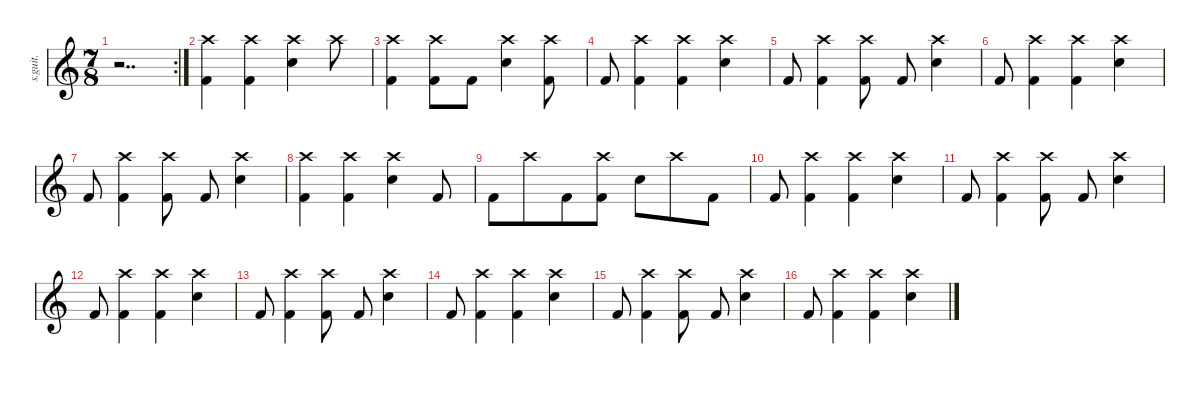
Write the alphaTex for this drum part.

\defaultSystemsLayout 4
\hideDynamics
\bracketExtendMode nobrackets
\track ("" "s.guit.") {instrument percussion}
\staff {score}
\articulation defaults
\rc 2
\ts (7 8)
\tempo (212 hide)
\clef g2
\ks c
r.2{dd dy f} |
("Kick (hit) 2" "Crash high (hit)").4{lyrics (0 "") lyrics (1 "") lyrics (2 "") lyrics (3 "") lyrics (4 "")} ("Kick (hit) 2" "Crash high (hit)").4{lyrics (0 "") lyrics (1 "") lyrics (2 "") lyrics (3 "") lyrics (4 "")} ("Snare (hit) 2" "Crash high (hit)").4{lyrics (0 "") lyrics (1 "") lyrics (2 "") lyrics (3 "") lyrics (4 "")} "Crash high (hit)".8{lyrics (0 "") lyrics (1 "") lyrics (2 "") lyrics (3 "") lyrics (4 "")} |
("Kick (hit) 2" "Crash high (hit)").4{lyrics (0 "") lyrics (1 "") lyrics (2 "") lyrics (3 "") lyrics (4 "")} ("Kick (hit) 2" "Crash high (hit)").8{lyrics (0 "") lyrics (1 "") lyrics (2 "") lyrics (3 "") lyrics (4 "")} "Kick (hit) 2".8{lyrics (0 "") lyrics (1 "") lyrics (2 "") lyrics (3 "") lyrics (4 "")} ("Snare (hit) 2" "Crash high (hit)").4{lyrics (0 "") lyrics (1 "") lyrics (2 "") lyrics (3 "") lyrics (4 "")} ("Kick (hit) 2" "Crash high (hit)").8{lyrics (0 "") lyrics (1 "") lyrics (2 "") lyrics (3 "") lyrics (4 "")} |
"Kick (hit) 2".8{lyrics (0 "") lyrics (1 "") lyrics (2 "") lyrics (3 "") lyrics (4 "")} ("Kick (hit) 2" "Crash high (hit)").4{lyrics (0 "") lyrics (1 "") lyrics (2 "") lyrics (3 "") lyrics (4 "")} ("Kick (hit) 2" "Crash high (hit)").4{lyrics (0 "") lyrics (1 "") lyrics (2 "") lyrics (3 "") lyrics (4 "")} ("Snare (hit) 2" "Crash high (hit)").4{lyrics (0 "") lyrics (1 "") lyrics (2 "") lyrics (3 "") lyrics (4 "")} |
"Kick (hit) 2".8{lyrics (0 "") lyrics (1 "") lyrics (2 "") lyrics (3 "") lyrics (4 "")} ("Kick (hit) 2" "Crash high (hit)").4{lyrics (0 "") lyrics (1 "") lyrics (2 "") lyrics (3 "") lyrics (4 "")} ("Kick (hit) 2" "Crash high (hit)").8{lyrics (0 "") lyrics (1 "") lyrics (2 "") lyrics (3 "") lyrics (4 "")} "Kick (hit) 2".8{lyrics (0 "") lyrics (1 "") lyrics (2 "") lyrics (3 "") lyrics (4 "")} ("Snare (hit) 2" "Crash high (hit)").4{lyrics (0 "") lyrics (1 "") lyrics (2 "") lyrics (3 "") lyrics (4 "")} |
"Kick (hit) 2".8{lyrics (0 "") lyrics (1 "") lyrics (2 "") lyrics (3 "") lyrics (4 "")} ("Kick (hit) 2" "Crash high (hit)").4{lyrics (0 "") lyrics (1 "") lyrics (2 "") lyrics (3 "") lyrics (4 "")} ("Kick (hit) 2" "Crash high (hit)").4{lyrics (0 "") lyrics (1 "") lyrics (2 "") lyrics (3 "") lyrics (4 "")} ("Snare (hit) 2" "Crash high (hit)").4{lyrics (0 "") lyrics (1 "") lyrics (2 "") lyrics (3 "") lyrics (4 "")} |
"Kick (hit) 2".8{lyrics (0 "") lyrics (1 "") lyrics (2 "") lyrics (3 "") lyrics (4 "")} ("Kick (hit) 2" "Crash high (hit)").4{lyrics (0 "") lyrics (1 "") lyrics (2 "") lyrics (3 "") lyrics (4 "")} ("Kick (hit) 2" "Crash high (hit)").8{lyrics (0 "") lyrics (1 "") lyrics (2 "") lyrics (3 "") lyrics (4 "")} "Kick (hit) 2".8{lyrics (0 "") lyrics (1 "") lyrics (2 "") lyrics (3 "") lyrics (4 "")} ("Snare (hit) 2" "Crash high (hit)").4{lyrics (0 "") lyrics (1 "") lyrics (2 "") lyrics (3 "") lyrics (4 "")} |
("Kick (hit) 2" "Crash high (hit)").4{lyrics (0 "") lyrics (1 "") lyrics (2 "") lyrics (3 "") lyrics (4 "")} ("Kick (hit) 2" "Crash high (hit)").4{lyrics (0 "") lyrics (1 "") lyrics (2 "") lyrics (3 "") lyrics (4 "")} ("Snare (hit) 2" "Crash high (hit)").4{lyrics (0 "") lyrics (1 "") lyrics (2 "") lyrics (3 "") lyrics (4 "")} "Kick (hit) 2".8{lyrics (0 "") lyrics (1 "") lyrics (2 "") lyrics (3 "") lyrics (4 "")} |
"Kick (hit) 2".8{lyrics (0 "") lyrics (1 "") lyrics (2 "") lyrics (3 "") lyrics (4 "")} "Crash high (hit)".8{lyrics (0 "") lyrics (1 "") lyrics (2 "") lyrics (3 "") lyrics (4 "")} "Kick (hit) 2".8{lyrics (0 "") lyrics (1 "") lyrics (2 "") lyrics (3 "") lyrics (4 "")} ("Kick (hit) 2" "Crash high (hit)").8{lyrics (0 "") lyrics (1 "") lyrics (2 "") lyrics (3 "") lyrics (4 "")} "Snare (hit) 2".8{lyrics (0 "") lyrics (1 "") lyrics (2 "") lyrics (3 "") lyrics (4 "")} "Crash high (hit)".8{lyrics (0 "") lyrics (1 "") lyrics (2 "") lyrics (3 "") lyrics (4 "")} "Kick (hit) 2".8{lyrics (0 "") lyrics (1 "") lyrics (2 "") lyrics (3 "") lyrics (4 "")} |
"Kick (hit) 2".8{lyrics (0 "") lyrics (1 "") lyrics (2 "") lyrics (3 "") lyrics (4 "")} ("Kick (hit) 2" "Crash high (hit)").4{lyrics (0 "") lyrics (1 "") lyrics (2 "") lyrics (3 "") lyrics (4 "")} ("Kick (hit) 2" "Crash high (hit)").4{lyrics (0 "") lyrics (1 "") lyrics (2 "") lyrics (3 "") lyrics (4 "")} ("Snare (hit) 2" "Crash high (hit)").4{lyrics (0 "") lyrics (1 "") lyrics (2 "") lyrics (3 "") lyrics (4 "")} |
"Kick (hit) 2".8{lyrics (0 "") lyrics (1 "") lyrics (2 "") lyrics (3 "") lyrics (4 "")} ("Kick (hit) 2" "Crash high (hit)").4{lyrics (0 "") lyrics (1 "") lyrics (2 "") lyrics (3 "") lyrics (4 "")} ("Kick (hit) 2" "Crash high (hit)").8{lyrics (0 "") lyrics (1 "") lyrics (2 "") lyrics (3 "") lyrics (4 "")} "Kick (hit) 2".8{lyrics (0 "") lyrics (1 "") lyrics (2 "") lyrics (3 "") lyrics (4 "")} ("Snare (hit) 2" "Crash high (hit)").4{lyrics (0 "") lyrics (1 "") lyrics (2 "") lyrics (3 "") lyrics (4 "")} |
"Kick (hit) 2".8{lyrics (0 "") lyrics (1 "") lyrics (2 "") lyrics (3 "") lyrics (4 "")} ("Kick (hit) 2" "Crash high (hit)").4{lyrics (0 "") lyrics (1 "") lyrics (2 "") lyrics (3 "") lyrics (4 "")} ("Kick (hit) 2" "Crash high (hit)").4{lyrics (0 "") lyrics (1 "") lyrics (2 "") lyrics (3 "") lyrics (4 "")} ("Snare (hit) 2" "Crash high (hit)").4{lyrics (0 "") lyrics (1 "") lyrics (2 "") lyrics (3 "") lyrics (4 "")} |
"Kick (hit) 2".8{lyrics (0 "") lyrics (1 "") lyrics (2 "") lyrics (3 "") lyrics (4 "")} ("Kick (hit) 2" "Crash high (hit)").4{lyrics (0 "") lyrics (1 "") lyrics (2 "") lyrics (3 "") lyrics (4 "")} ("Kick (hit) 2" "Crash high (hit)").8{lyrics (0 "") lyrics (1 "") lyrics (2 "") lyrics (3 "") lyrics (4 "")} "Kick (hit) 2".8{lyrics (0 "") lyrics (1 "") lyrics (2 "") lyrics (3 "") lyrics (4 "")} ("Snare (hit) 2" "Crash high (hit)").4{lyrics (0 "") lyrics (1 "") lyrics (2 "") lyrics (3 "") lyrics (4 "")} |
"Kick (hit) 2".8{lyrics (0 "") lyrics (1 "") lyrics (2 "") lyrics (3 "") lyrics (4 "")} ("Kick (hit) 2" "Crash high (hit)").4{lyrics (0 "") lyrics (1 "") lyrics (2 "") lyrics (3 "") lyrics (4 "")} ("Kick (hit) 2" "Crash high (hit)").4{lyrics (0 "") lyrics (1 "") lyrics (2 "") lyrics (3 "") lyrics (4 "")} ("Snare (hit) 2" "Crash high (hit)").4{lyrics (0 "") lyrics (1 "") lyrics (2 "") lyrics (3 "") lyrics (4 "")} |
"Kick (hit) 2".8{lyrics (0 "") lyrics (1 "") lyrics (2 "") lyrics (3 "") lyrics (4 "")} ("Kick (hit) 2" "Crash high (hit)").4{lyrics (0 "") lyrics (1 "") lyrics (2 "") lyrics (3 "") lyrics (4 "")} ("Kick (hit) 2" "Crash high (hit)").8{lyrics (0 "") lyrics (1 "") lyrics (2 "") lyrics (3 "") lyrics (4 "")} "Kick (hit) 2".8{lyrics (0 "") lyrics (1 "") lyrics (2 "") lyrics (3 "") lyrics (4 "")} ("Snare (hit) 2" "Crash high (hit)").4{lyrics (0 "") lyrics (1 "") lyrics (2 "") lyrics (3 "") lyrics (4 "")} |
"Kick (hit) 2".8{lyrics (0 "") lyrics (1 "") lyrics (2 "") lyrics (3 "") lyrics (4 "")} ("Kick (hit) 2" "Crash high (hit)").4{lyrics (0 "") lyrics (1 "") lyrics (2 "") lyrics (3 "") lyrics (4 "")} ("Kick (hit) 2" "Crash high (hit)").4{lyrics (0 "") lyrics (1 "") lyrics (2 "") lyrics (3 "") lyrics (4 "")} ("Snare (hit) 2" "Crash high (hit)").4{lyrics (0 "") lyrics (1 "") lyrics (2 "") lyrics (3 "") lyrics (4 "")}
